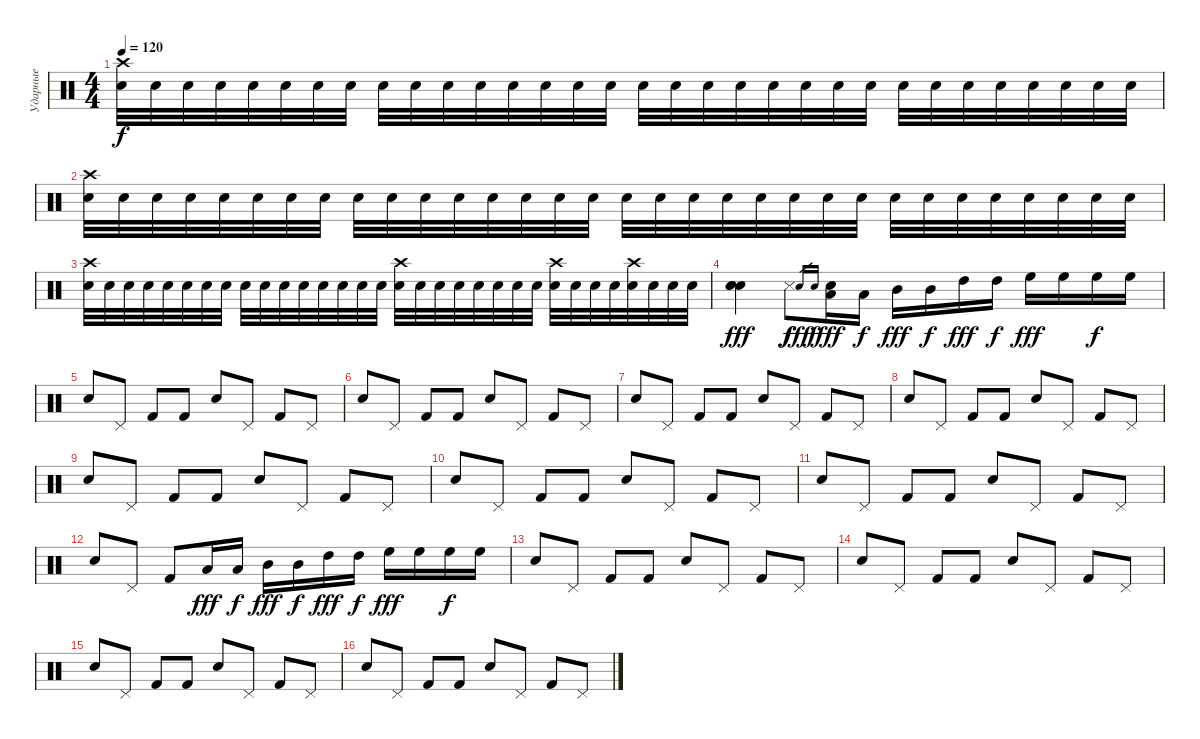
\track ("Ударные" "Ударные") {instrument percussion}
\staff {score}
\articulation defaults
\ts (4 4)
\tempo 120
\clef neutral
\ks c
("Electric Snare (hit)" "Crash high (hit)").32{dy f} "Electric Snare (hit)".32 "Electric Snare (hit)".32 "Electric Snare (hit)".32 "Electric Snare (hit)".32 "Electric Snare (hit)".32 "Electric Snare (hit)".32 "Electric Snare (hit)".32 "Electric Snare (hit)".32 "Electric Snare (hit)".32 "Electric Snare (hit)".32 "Electric Snare (hit)".32 "Electric Snare (hit)".32 "Electric Snare (hit)".32 "Electric Snare (hit)".32 "Electric Snare (hit)".32 "Electric Snare (hit)".32 "Electric Snare (hit)".32 "Electric Snare (hit)".32 "Electric Snare (hit)".32 "Electric Snare (hit)".32 "Electric Snare (hit)".32 "Electric Snare (hit)".32 "Electric Snare (hit)".32 "Electric Snare (hit)".32 "Electric Snare (hit)".32 "Electric Snare (hit)".32 "Electric Snare (hit)".32 "Electric Snare (hit)".32 "Electric Snare (hit)".32 "Electric Snare (hit)".32 "Electric Snare (hit)".32 |
("Electric Snare (hit)" "Crash high (hit)").32 "Electric Snare (hit)".32 "Electric Snare (hit)".32 "Electric Snare (hit)".32 "Electric Snare (hit)".32 "Electric Snare (hit)".32 "Electric Snare (hit)".32 "Electric Snare (hit)".32 "Electric Snare (hit)".32 "Electric Snare (hit)".32 "Electric Snare (hit)".32 "Electric Snare (hit)".32 "Electric Snare (hit)".32 "Electric Snare (hit)".32 "Electric Snare (hit)".32 "Electric Snare (hit)".32 "Electric Snare (hit)".32 "Electric Snare (hit)".32 "Electric Snare (hit)".32 "Electric Snare (hit)".32 "Electric Snare (hit)".32 "Electric Snare (hit)".32 "Electric Snare (hit)".32 "Electric Snare (hit)".32 "Electric Snare (hit)".32 "Electric Snare (hit)".32 "Electric Snare (hit)".32 "Electric Snare (hit)".32 "Electric Snare (hit)".32 "Electric Snare (hit)".32 "Electric Snare (hit)".32 "Electric Snare (hit)".32 |
("Electric Snare (hit)" "Crash high (hit)").32 "Electric Snare (hit)".32 "Electric Snare (hit)".32 "Electric Snare (hit)".32 "Electric Snare (hit)".32 "Electric Snare (hit)".32 "Electric Snare (hit)".32 "Electric Snare (hit)".32 "Electric Snare (hit)".32 "Electric Snare (hit)".32 "Electric Snare (hit)".32 "Electric Snare (hit)".32 "Electric Snare (hit)".32 "Electric Snare (hit)".32 "Electric Snare (hit)".32 "Electric Snare (hit)".32 ("Electric Snare (hit)" "Crash high (hit)").32 "Electric Snare (hit)".32 "Electric Snare (hit)".32 "Electric Snare (hit)".32 "Electric Snare (hit)".32 "Electric Snare (hit)".32 "Electric Snare (hit)".32 "Electric Snare (hit)".32 ("Electric Snare (hit)" "Crash high (hit)").32 "Electric Snare (hit)".32 "Electric Snare (hit)".32 "Electric Snare (hit)".32 ("Electric Snare (hit)" "Crash high (hit)").32 "Electric Snare (hit)".32 "Electric Snare (hit)".32 "Electric Snare (hit)".32 |
("Metronome (bell)" "Metronome (bell)" "Metronome (bell)").4{dy fff} "Metronome (hit)".8{dy f} "Snare (hit) 2".16{gr dy fff} "Snare (hit) 2".16{gr dy f} ("Low Tom (hit)" "Snare (hit) 2").16{dy fff} "Low Tom (hit)".16{dy f} "Mid Tom (hit)".16{dy fff} "Mid Tom (hit)".16{dy f} "High Tom (hit)".16{dy fff} "High Tom (hit)".16{dy f} "High Floor Tom (hit)".16{dy fff} "High Floor Tom (hit)".16 "High Floor Tom (hit)".16{dy f} "High Floor Tom (hit)".16 |
"Electric Snare (hit)".8 "Pedal Hi-Hat (hit)".8 "Kick (hit) 2".8 "Kick (hit) 2".8 "Electric Snare (hit)".8 "Pedal Hi-Hat (hit)".8 "Kick (hit) 2".8 "Pedal Hi-Hat (hit)".8 |
"Electric Snare (hit)".8 "Pedal Hi-Hat (hit)".8 "Kick (hit) 2".8 "Kick (hit) 2".8 "Electric Snare (hit)".8 "Pedal Hi-Hat (hit)".8 "Kick (hit) 2".8 "Pedal Hi-Hat (hit)".8 |
"Electric Snare (hit)".8 "Pedal Hi-Hat (hit)".8 "Kick (hit) 2".8 "Kick (hit) 2".8 "Electric Snare (hit)".8 "Pedal Hi-Hat (hit)".8 "Kick (hit) 2".8 "Pedal Hi-Hat (hit)".8 |
"Electric Snare (hit)".8 "Pedal Hi-Hat (hit)".8 "Kick (hit) 2".8 "Kick (hit) 2".8 "Electric Snare (hit)".8 "Pedal Hi-Hat (hit)".8 "Kick (hit) 2".8 "Pedal Hi-Hat (hit)".8 |
"Electric Snare (hit)".8 "Pedal Hi-Hat (hit)".8 "Kick (hit) 2".8 "Kick (hit) 2".8 "Electric Snare (hit)".8 "Pedal Hi-Hat (hit)".8 "Kick (hit) 2".8 "Pedal Hi-Hat (hit)".8 |
"Electric Snare (hit)".8 "Pedal Hi-Hat (hit)".8 "Kick (hit) 2".8 "Kick (hit) 2".8 "Electric Snare (hit)".8 "Pedal Hi-Hat (hit)".8 "Kick (hit) 2".8 "Pedal Hi-Hat (hit)".8 |
"Electric Snare (hit)".8 "Pedal Hi-Hat (hit)".8 "Kick (hit) 2".8 "Kick (hit) 2".8 "Electric Snare (hit)".8 "Pedal Hi-Hat (hit)".8 "Kick (hit) 2".8 "Pedal Hi-Hat (hit)".8 |
"Electric Snare (hit)".8 "Pedal Hi-Hat (hit)".8 "Kick (hit) 2".8 "Low Tom (hit)".16{dy fff} "Low Tom (hit)".16{dy f} "Mid Tom (hit)".16{dy fff} "Mid Tom (hit)".16{dy f} "High Tom (hit)".16{dy fff} "High Tom (hit)".16{dy f} "High Floor Tom (hit)".16{dy fff} "High Floor Tom (hit)".16 "High Floor Tom (hit)".16{dy f} "High Floor Tom (hit)".16 |
"Electric Snare (hit)".8 "Pedal Hi-Hat (hit)".8 "Kick (hit) 2".8 "Kick (hit) 2".8 "Electric Snare (hit)".8 "Pedal Hi-Hat (hit)".8 "Kick (hit) 2".8 "Pedal Hi-Hat (hit)".8 |
"Electric Snare (hit)".8 "Pedal Hi-Hat (hit)".8 "Kick (hit) 2".8 "Kick (hit) 2".8 "Electric Snare (hit)".8 "Pedal Hi-Hat (hit)".8 "Kick (hit) 2".8 "Pedal Hi-Hat (hit)".8 |
"Electric Snare (hit)".8 "Pedal Hi-Hat (hit)".8 "Kick (hit) 2".8 "Kick (hit) 2".8 "Electric Snare (hit)".8 "Pedal Hi-Hat (hit)".8 "Kick (hit) 2".8 "Pedal Hi-Hat (hit)".8 |
"Electric Snare (hit)".8 "Pedal Hi-Hat (hit)".8 "Kick (hit) 2".8 "Kick (hit) 2".8 "Electric Snare (hit)".8 "Pedal Hi-Hat (hit)".8 "Kick (hit) 2".8 "Pedal Hi-Hat (hit)".8
